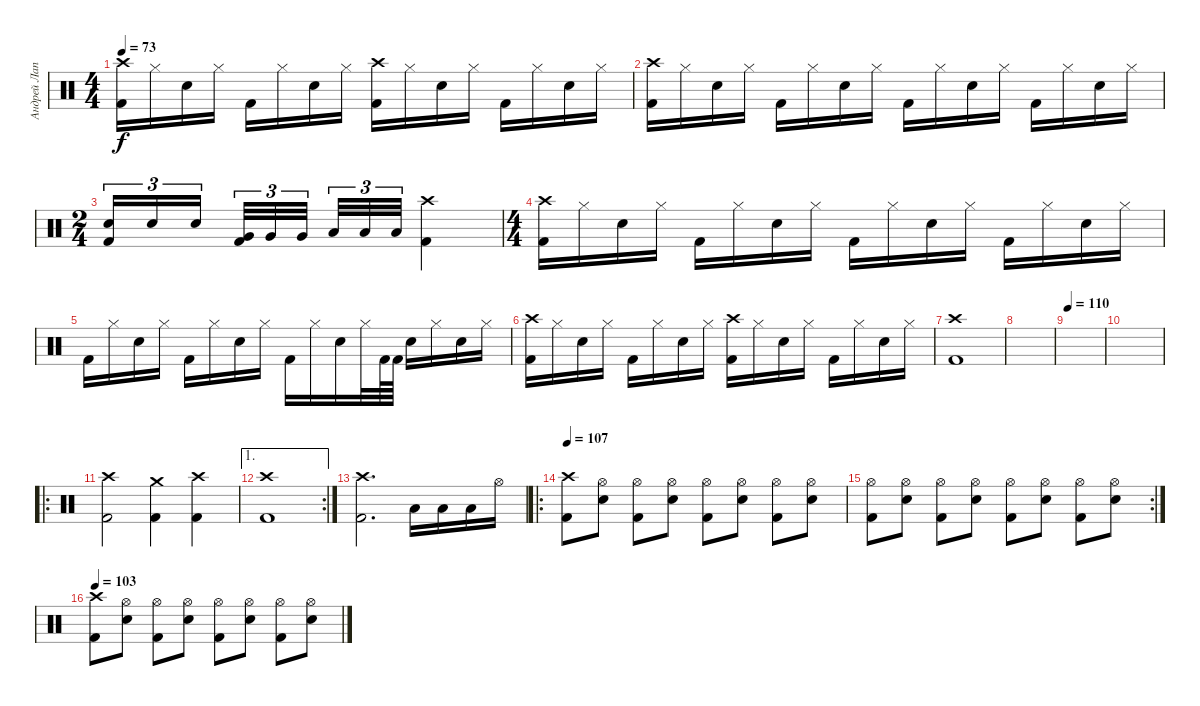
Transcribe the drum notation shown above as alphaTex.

\track ("Андрей Лаптев" "Андрей Лап") {instrument percussion}
\staff {score}
\articulation defaults
\ts (4 4)
\tempo 73
\clef neutral
\ks c
("Crash high (hit)" "Kick (hit) 2").16{dy f} "Hi-Hat (closed)".16 "Electric Snare (hit)".16 "Hi-Hat (closed)".16 "Kick (hit) 2".16 "Hi-Hat (closed)".16 "Electric Snare (hit)".16 "Hi-Hat (closed)".16 ("Crash high (hit)" "Kick (hit) 2").16 "Hi-Hat (closed)".16 "Electric Snare (hit)".16 "Hi-Hat (closed)".16 "Kick (hit) 2".16 "Hi-Hat (closed)".16 "Electric Snare (hit)".16 "Hi-Hat (closed)".16 |
("Crash high (hit)" "Kick (hit) 2").16 "Hi-Hat (closed)".16 "Electric Snare (hit)".16 "Hi-Hat (closed)".16 "Kick (hit) 2".16 "Hi-Hat (closed)".16 "Electric Snare (hit)".16 "Hi-Hat (closed)".16 "Kick (hit) 2".16 "Hi-Hat (closed)".16 "Electric Snare (hit)".16 "Hi-Hat (closed)".16 "Kick (hit) 2".16 "Hi-Hat (closed)".16 "Electric Snare (hit)".16 "Hi-Hat (closed)".16 |
\ts (2 4)
("Electric Snare (hit)" "Kick (hit) 2").16{tu (3 2)} "Electric Snare (hit)".16{tu (3 2)} "Electric Snare (hit)".16{tu (3 2) beam splitsecondary} ("Very Low Tom (hit)" "Kick (hit) 2").32{tu (3 2)} "Very Low Tom (hit)".32{tu (3 2)} "Very Low Tom (hit)".32{tu (3 2) beam splitsecondary} "Low Floor Tom (hit)".32{tu (3 2)} "Low Floor Tom (hit)".32{tu (3 2)} "Low Floor Tom (hit)".32{tu (3 2)} ("Crash high (hit)" "Kick (hit) 2").4 |
\ts (4 4)
("Crash high (hit)" "Kick (hit) 2").16 "Hi-Hat (closed)".16 "Electric Snare (hit)".16 "Hi-Hat (closed)".16 "Kick (hit) 2".16 "Hi-Hat (closed)".16 "Electric Snare (hit)".16 "Hi-Hat (closed)".16 "Kick (hit) 2".16 "Hi-Hat (closed)".16 "Electric Snare (hit)".16 "Hi-Hat (closed)".16 "Kick (hit) 2".16 "Hi-Hat (closed)".16 "Electric Snare (hit)".16 "Hi-Hat (closed)".16 |
"Kick (hit) 2".16 "Hi-Hat (closed)".16 "Electric Snare (hit)".16 "Hi-Hat (closed)".16 "Kick (hit) 2".16 "Hi-Hat (closed)".16 "Electric Snare (hit)".16 "Hi-Hat (closed)".16 "Kick (hit) 2".16 "Hi-Hat (closed)".16 "Electric Snare (hit)".16 "Hi-Hat (closed)".32 "Kick (hit) 2".64 "Kick (hit) 2".64 "Electric Snare (hit)".16 "Hi-Hat (closed)".16 "Electric Snare (hit)".16 "Hi-Hat (closed)".16 |
("Crash high (hit)" "Kick (hit) 2").16 "Hi-Hat (closed)".16 "Electric Snare (hit)".16 "Hi-Hat (closed)".16 "Kick (hit) 2".16 "Hi-Hat (closed)".16 "Electric Snare (hit)".16 "Hi-Hat (closed)".16 ("Crash high (hit)" "Kick (hit) 2").16 "Hi-Hat (closed)".16 "Electric Snare (hit)".16 "Hi-Hat (closed)".16 "Kick (hit) 2".16 "Hi-Hat (closed)".16 "Electric Snare (hit)".16 "Hi-Hat (closed)".16 |
("Crash high (hit)" "Kick (hit) 2").1 |
|
\tempo 110
|
|
\ro
("Crash high (hit)" "Kick (hit) 2").2 ("Crash medium (hit)" "Kick (hit) 2").4 ("Crash high (hit)" "Kick (hit) 2").4 |
\ae 1
\rc 2
("Crash high (hit)" "Kick (hit) 2").1 |
("Crash high (hit)" "Kick (hit) 2").2{d} "Low Tom (hit)".16 "Low Tom (hit)".16 "Low Tom (hit)".16 "Hi-Hat (open)".16 |
\ro
\tempo 107
("Crash high (hit)" "Kick (hit) 2").8 ("Hi-Hat (open)" "Electric Snare (hit)").8 ("Hi-Hat (open)" "Kick (hit) 2").8 ("Hi-Hat (open)" "Electric Snare (hit)").8 ("Hi-Hat (open)" "Kick (hit) 2").8 ("Hi-Hat (open)" "Electric Snare (hit)").8 ("Hi-Hat (open)" "Kick (hit) 2").8 ("Hi-Hat (open)" "Electric Snare (hit)").8 |
\rc 2
("Hi-Hat (open)" "Kick (hit) 2").8 ("Hi-Hat (open)" "Electric Snare (hit)").8 ("Hi-Hat (open)" "Kick (hit) 2").8 ("Hi-Hat (open)" "Electric Snare (hit)").8 ("Hi-Hat (open)" "Kick (hit) 2").8 ("Hi-Hat (open)" "Electric Snare (hit)").8 ("Hi-Hat (open)" "Kick (hit) 2").8 ("Hi-Hat (open)" "Electric Snare (hit)").8 |
\tempo 103
("Crash high (hit)" "Kick (hit) 2").8 ("Hi-Hat (open)" "Electric Snare (hit)").8 ("Hi-Hat (open)" "Kick (hit) 2").8 ("Hi-Hat (open)" "Electric Snare (hit)").8 ("Hi-Hat (open)" "Kick (hit) 2").8 ("Hi-Hat (open)" "Electric Snare (hit)").8 ("Hi-Hat (open)" "Kick (hit) 2").8 ("Hi-Hat (open)" "Electric Snare (hit)").8
